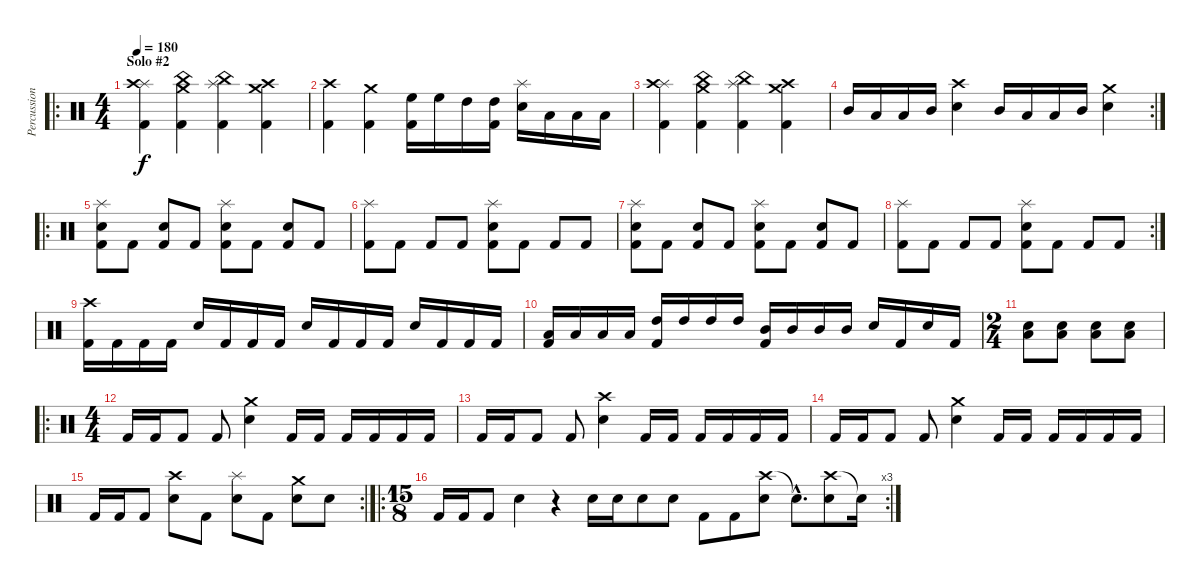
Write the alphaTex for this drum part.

\track ("Percussion" "Percussion") {instrument percussion}
\staff {score}
\articulation defaults
\ro
\ts (4 4)
\section ("" "Solo #2")
\tempo 180
\clef neutral
\ks c
("Splash (hit)" "Crash high (hit)" "Kick (hit) 2").4{dy f} ("Crash medium (hit)" "China (hit)" "Kick (hit) 2").4 ("Splash (hit)" "China (hit)" "Kick (hit) 2").4 ("Crash high (hit)" "Crash medium (hit)" "Kick (hit) 2").4 |
("Crash high (hit)" "Kick (hit) 2").4 ("Crash medium (hit)" "Kick (hit) 2").4 ("High Floor Tom (hit)" "Kick (hit) 2").16 "High Floor Tom (hit)".16 "High Tom (hit)".16 ("High Tom (hit)" "Kick (hit) 2").16 ("Splash (hit)" "Snare (hit) 2").16 "Low Tom (hit)".16 "Low Tom (hit)".16 "Low Tom (hit)".16 |
("Splash (hit)" "Crash high (hit)" "Kick (hit) 2").4 ("Crash medium (hit)" "China (hit)" "Kick (hit) 2").4 ("Splash (hit)" "China (hit)" "Kick (hit) 2").4 ("Crash high (hit)" "Crash medium (hit)" "Kick (hit) 2").4 |
\rc 2 "Mid Tom (hit)".16 "Low Tom (hit)".16 "Low Tom (hit)".16 "Mid Tom (hit)".16
("Crash high (hit)" "Snare (hit) 2").4 "Mid Tom (hit)".16 "Low Tom (hit)".16 "Low Tom (hit)".16 "Mid Tom (hit)".16 ("Crash medium (hit)" "Snare (hit) 2").4 |
\ro
("Splash (hit)" "Snare (hit) 2" "Kick (hit) 2").8 "Kick (hit) 2".8 ("Snare (hit) 2" "Kick (hit) 2").8 "Kick (hit) 2".8 ("Splash (hit)" "Snare (hit) 2" "Kick (hit) 2").8 "Kick (hit) 2".8 ("Snare (hit) 2" "Kick (hit) 2").8 "Kick (hit) 2".8 |
("Splash (hit)" "Kick (hit) 2").8 "Kick (hit) 2".8 "Kick (hit) 2".8 "Kick (hit) 2".8 ("Splash (hit)" "Snare (hit) 2" "Kick (hit) 2").8 "Kick (hit) 2".8 "Kick (hit) 2".8 "Kick (hit) 2".8 |
("Splash (hit)" "Snare (hit) 2" "Kick (hit) 2").8 "Kick (hit) 2".8 ("Snare (hit) 2" "Kick (hit) 2").8 "Kick (hit) 2".8 ("Splash (hit)" "Snare (hit) 2" "Kick (hit) 2").8 "Kick (hit) 2".8 ("Snare (hit) 2" "Kick (hit) 2").8 "Kick (hit) 2".8 |
\rc 2
("Splash (hit)" "Kick (hit) 2").8 "Kick (hit) 2".8 "Kick (hit) 2".8 "Kick (hit) 2".8 ("Splash (hit)" "Snare (hit) 2" "Kick (hit) 2").8 "Kick (hit) 2".8 "Kick (hit) 2".8 "Kick (hit) 2".8 |
("Crash high (hit)" "Kick (hit) 2").16 "Kick (hit) 2".16 "Kick (hit) 2".16 "Kick (hit) 2".16 "Snare (hit) 2".16 "Kick (hit) 2".16 "Kick (hit) 2".16 "Kick (hit) 2".16 "Snare (hit) 2".16 "Kick (hit) 2".16 "Kick (hit) 2".16 "Kick (hit) 2".16 "Snare (hit) 2".16 "Kick (hit) 2".16 "Kick (hit) 2".16 "Kick (hit) 2".16 |
("Low Tom (hit)" "Kick (hit) 2").16 "Low Tom (hit)".16 "Low Tom (hit)".16 "Low Tom (hit)".16 ("High Tom (hit)" "Kick (hit) 2").16 "High Tom (hit)".16 "High Tom (hit)".16 "High Tom (hit)".16 ("Mid Tom (hit)" "Kick (hit) 2").16 "Mid Tom (hit)".16 "Mid Tom (hit)".16 "Mid Tom (hit)".16 "Snare (hit) 2".16 "Kick (hit) 2".16 "Snare (hit) 2".16 "Kick (hit) 2".16 |
\ts (2 4)
("Low Tom (hit)" "Snare (hit) 2").8 ("Low Tom (hit)" "Snare (hit) 2").8 ("Low Tom (hit)" "Snare (hit) 2").8 ("Low Tom (hit)" "Snare (hit) 2").8 |
\ro
\ts (4 4)
"Kick (hit) 2".16 "Kick (hit) 2".16 "Kick (hit) 2".8 "Kick (hit) 2".8 ("Crash medium (hit)" "Snare (hit) 2").4 "Kick (hit) 2".16 "Kick (hit) 2".16 "Kick (hit) 2".16 "Kick (hit) 2".16 "Kick (hit) 2".16 "Kick (hit) 2".16 |
"Kick (hit) 2".16 "Kick (hit) 2".16 "Kick (hit) 2".8 "Kick (hit) 2".8 ("Crash high (hit)" "Snare (hit) 2").4 "Kick (hit) 2".16 "Kick (hit) 2".16 "Kick (hit) 2".16 "Kick (hit) 2".16 "Kick (hit) 2".16 "Kick (hit) 2".16 |
"Kick (hit) 2".16 "Kick (hit) 2".16 "Kick (hit) 2".8 "Kick (hit) 2".8 ("Crash medium (hit)" "Snare (hit) 2").4 "Kick (hit) 2".16 "Kick (hit) 2".16 "Kick (hit) 2".16 "Kick (hit) 2".16 "Kick (hit) 2".16 "Kick (hit) 2".16 |
\rc 2 "Kick (hit) 2".16 "Kick (hit) 2".16 "Kick (hit) 2".8
("Crash high (hit)" "Snare (hit) 2").8 "Kick (hit) 2".8 ("Splash (hit)" "Snare (hit) 2").8 "Kick (hit) 2".8 ("Crash medium (hit)" "Snare (hit) 2").8 "Snare (hit) 2".8 |
\ro
\rc 3
\ts (15 8)
"Kick (hit) 2".16 "Kick (hit) 2".16 "Kick (hit) 2".8 "Snare (hit) 2".4 r.4 "Snare (hit) 2".16 "Snare (hit) 2".16 "Snare (hit) 2".8 "Snare (hit) 2".8 "Kick (hit) 2".8 "Kick (hit) 2".8 ("Crash high (hit)" "Snare (hit) 2").8 "Snare (hit)"{hac t}.8{d} ("Crash high (hit)" "Snare (hit) 2").8 "Snare (hit)"{t}.16
